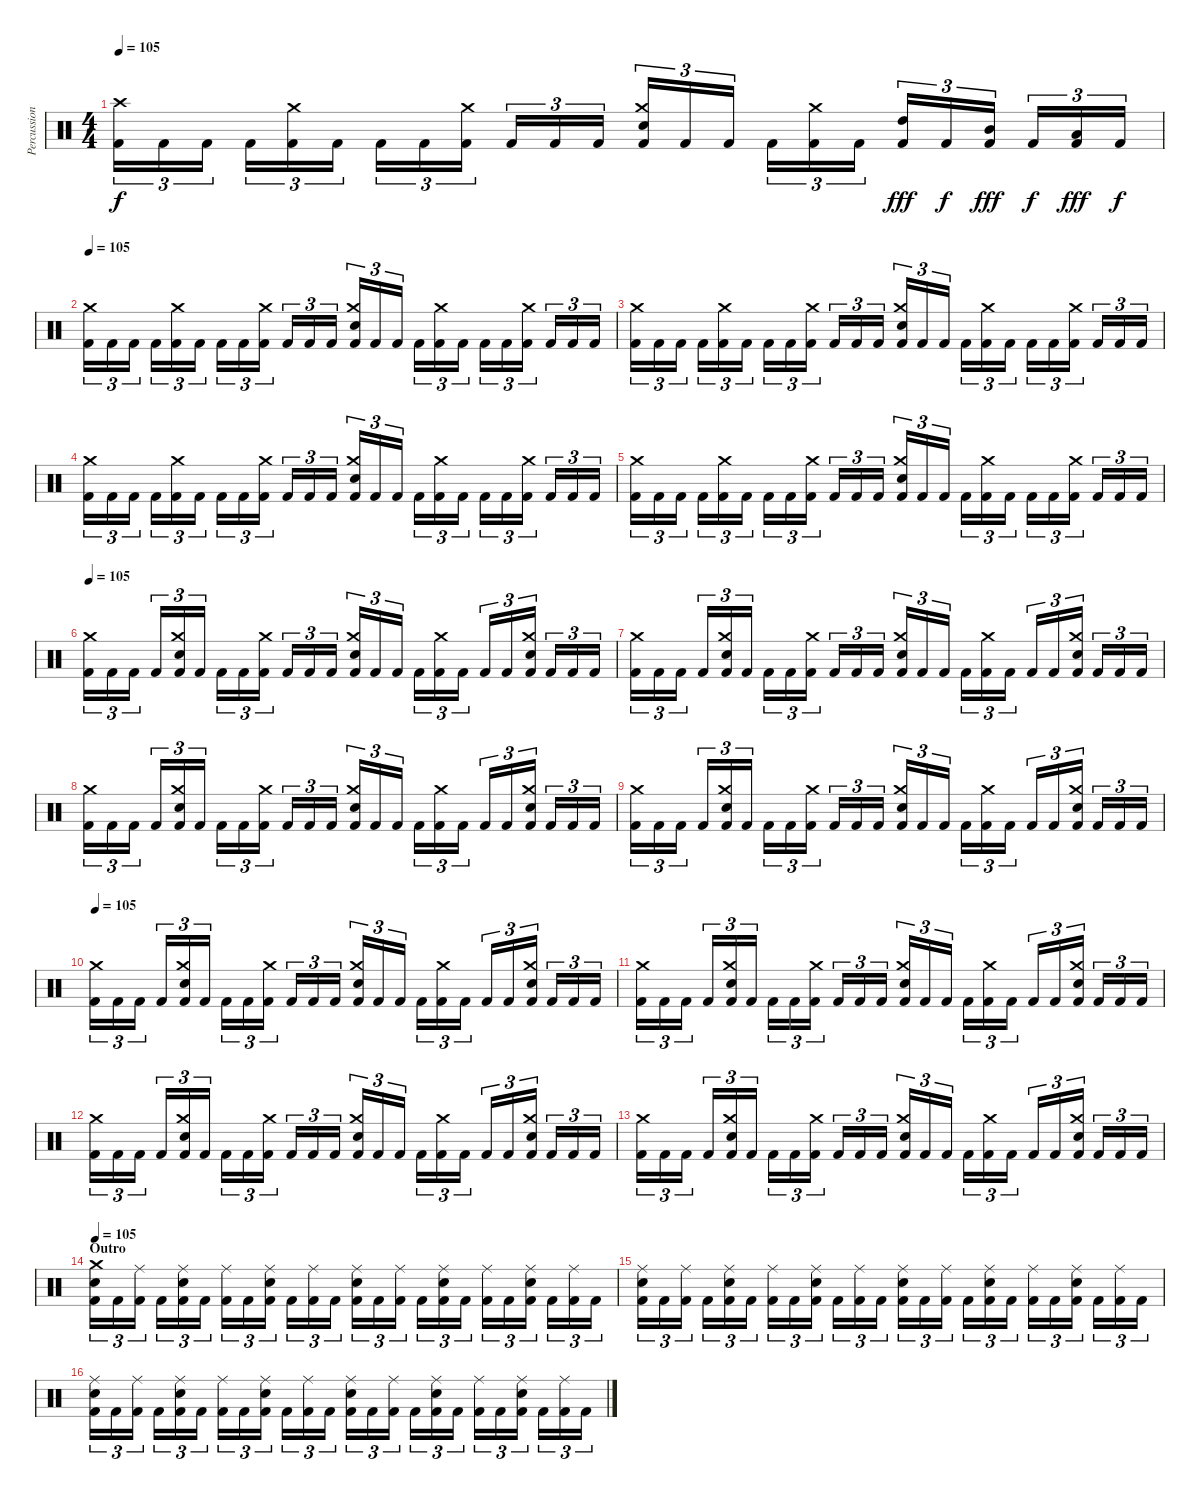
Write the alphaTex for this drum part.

\track ("Percussion" "Percussion") {instrument percussion}
\staff {score}
\articulation defaults
\ts (4 4)
\tempo 105
\clef neutral
\ks c
("Kick (hit) 2" "Crash high (hit)").16{tu (3 2) dy f} "Kick (hit) 2".16{tu (3 2)} "Kick (hit) 2".16{tu (3 2)} "Kick (hit) 2".16{tu (3 2)} ("Kick (hit) 2" "Crash medium (hit)").16{tu (3 2)} "Kick (hit) 2".16{tu (3 2)} "Kick (hit) 2".16{tu (3 2)} "Kick (hit) 2".16{tu (3 2)} ("Kick (hit) 2" "Crash medium (hit)").16{tu (3 2)} "Kick (hit) 2".16{tu (3 2)} "Kick (hit) 2".16{tu (3 2)} "Kick (hit) 2".16{tu (3 2)} ("Kick (hit) 2" "Electric Snare (hit)" "Crash medium (hit)").16{tu (3 2)} "Kick (hit) 2".16{tu (3 2)} "Kick (hit) 2".16{tu (3 2)} "Kick (hit) 2".16{tu (3 2)} ("Kick (hit) 2" "Crash medium (hit)").16{tu (3 2)} "Kick (hit) 2".16{tu (3 2)} ("Kick (hit) 2" "High Tom (hit)").16{tu (3 2) dy fff} "Kick (hit) 2".16{tu (3 2) dy f} ("Kick (hit) 2" "Mid Tom (hit)").16{tu (3 2) dy fff} "Kick (hit) 2".16{tu (3 2) dy f} ("Kick (hit) 2" "Low Tom (hit)").16{tu (3 2) dy fff} "Kick (hit) 2".16{tu (3 2) dy f} |
\tempo 105
("Kick (hit) 2" "Crash medium (hit)").16{tu (3 2)} "Kick (hit) 2".16{tu (3 2)} "Kick (hit) 2".16{tu (3 2)} "Kick (hit) 2".16{tu (3 2)} ("Kick (hit) 2" "Crash medium (hit)").16{tu (3 2)} "Kick (hit) 2".16{tu (3 2)} "Kick (hit) 2".16{tu (3 2)} "Kick (hit) 2".16{tu (3 2)} ("Kick (hit) 2" "Crash medium (hit)").16{tu (3 2)} "Kick (hit) 2".16{tu (3 2)} "Kick (hit) 2".16{tu (3 2)} "Kick (hit) 2".16{tu (3 2)} ("Kick (hit) 2" "Electric Snare (hit)" "Crash medium (hit)").16{tu (3 2)} "Kick (hit) 2".16{tu (3 2)} "Kick (hit) 2".16{tu (3 2)} "Kick (hit) 2".16{tu (3 2)} ("Kick (hit) 2" "Crash medium (hit)").16{tu (3 2)} "Kick (hit) 2".16{tu (3 2)} "Kick (hit) 2".16{tu (3 2)} "Kick (hit) 2".16{tu (3 2)} ("Kick (hit) 2" "Crash medium (hit)").16{tu (3 2)} "Kick (hit) 2".16{tu (3 2)} "Kick (hit) 2".16{tu (3 2)} "Kick (hit) 2".16{tu (3 2)} |
("Kick (hit) 2" "Crash medium (hit)").16{tu (3 2)} "Kick (hit) 2".16{tu (3 2)} "Kick (hit) 2".16{tu (3 2)} "Kick (hit) 2".16{tu (3 2)} ("Kick (hit) 2" "Crash medium (hit)").16{tu (3 2)} "Kick (hit) 2".16{tu (3 2)} "Kick (hit) 2".16{tu (3 2)} "Kick (hit) 2".16{tu (3 2)} ("Kick (hit) 2" "Crash medium (hit)").16{tu (3 2)} "Kick (hit) 2".16{tu (3 2)} "Kick (hit) 2".16{tu (3 2)} "Kick (hit) 2".16{tu (3 2)} ("Kick (hit) 2" "Electric Snare (hit)" "Crash medium (hit)").16{tu (3 2)} "Kick (hit) 2".16{tu (3 2)} "Kick (hit) 2".16{tu (3 2)} "Kick (hit) 2".16{tu (3 2)} ("Kick (hit) 2" "Crash medium (hit)").16{tu (3 2)} "Kick (hit) 2".16{tu (3 2)} "Kick (hit) 2".16{tu (3 2)} "Kick (hit) 2".16{tu (3 2)} ("Kick (hit) 2" "Crash medium (hit)").16{tu (3 2)} "Kick (hit) 2".16{tu (3 2)} "Kick (hit) 2".16{tu (3 2)} "Kick (hit) 2".16{tu (3 2)} |
("Kick (hit) 2" "Crash medium (hit)").16{tu (3 2)} "Kick (hit) 2".16{tu (3 2)} "Kick (hit) 2".16{tu (3 2)} "Kick (hit) 2".16{tu (3 2)} ("Kick (hit) 2" "Crash medium (hit)").16{tu (3 2)} "Kick (hit) 2".16{tu (3 2)} "Kick (hit) 2".16{tu (3 2)} "Kick (hit) 2".16{tu (3 2)} ("Kick (hit) 2" "Crash medium (hit)").16{tu (3 2)} "Kick (hit) 2".16{tu (3 2)} "Kick (hit) 2".16{tu (3 2)} "Kick (hit) 2".16{tu (3 2)} ("Kick (hit) 2" "Electric Snare (hit)" "Crash medium (hit)").16{tu (3 2)} "Kick (hit) 2".16{tu (3 2)} "Kick (hit) 2".16{tu (3 2)} "Kick (hit) 2".16{tu (3 2)} ("Kick (hit) 2" "Crash medium (hit)").16{tu (3 2)} "Kick (hit) 2".16{tu (3 2)} "Kick (hit) 2".16{tu (3 2)} "Kick (hit) 2".16{tu (3 2)} ("Kick (hit) 2" "Crash medium (hit)").16{tu (3 2)} "Kick (hit) 2".16{tu (3 2)} "Kick (hit) 2".16{tu (3 2)} "Kick (hit) 2".16{tu (3 2)} |
("Kick (hit) 2" "Crash medium (hit)").16{tu (3 2)} "Kick (hit) 2".16{tu (3 2)} "Kick (hit) 2".16{tu (3 2)} "Kick (hit) 2".16{tu (3 2)} ("Kick (hit) 2" "Crash medium (hit)").16{tu (3 2)} "Kick (hit) 2".16{tu (3 2)} "Kick (hit) 2".16{tu (3 2)} "Kick (hit) 2".16{tu (3 2)} ("Kick (hit) 2" "Crash medium (hit)").16{tu (3 2)} "Kick (hit) 2".16{tu (3 2)} "Kick (hit) 2".16{tu (3 2)} "Kick (hit) 2".16{tu (3 2)} ("Kick (hit) 2" "Electric Snare (hit)" "Crash medium (hit)").16{tu (3 2)} "Kick (hit) 2".16{tu (3 2)} "Kick (hit) 2".16{tu (3 2)} "Kick (hit) 2".16{tu (3 2)} ("Kick (hit) 2" "Crash medium (hit)").16{tu (3 2)} "Kick (hit) 2".16{tu (3 2)} "Kick (hit) 2".16{tu (3 2)} "Kick (hit) 2".16{tu (3 2)} ("Kick (hit) 2" "Crash medium (hit)").16{tu (3 2)} "Kick (hit) 2".16{tu (3 2)} "Kick (hit) 2".16{tu (3 2)} "Kick (hit) 2".16{tu (3 2)} |
\tempo 105
("Kick (hit) 2" "Crash medium (hit)").16{tu (3 2)} "Kick (hit) 2".16{tu (3 2)} "Kick (hit) 2".16{tu (3 2)} "Kick (hit) 2".16{tu (3 2)} ("Kick (hit) 2" "Electric Snare (hit)" "Crash medium (hit)").16{tu (3 2)} "Kick (hit) 2".16{tu (3 2)} "Kick (hit) 2".16{tu (3 2)} "Kick (hit) 2".16{tu (3 2)} ("Kick (hit) 2" "Crash medium (hit)").16{tu (3 2)} "Kick (hit) 2".16{tu (3 2)} "Kick (hit) 2".16{tu (3 2)} "Kick (hit) 2".16{tu (3 2)} ("Kick (hit) 2" "Electric Snare (hit)" "Crash medium (hit)").16{tu (3 2)} "Kick (hit) 2".16{tu (3 2)} "Kick (hit) 2".16{tu (3 2)} "Kick (hit) 2".16{tu (3 2)} ("Kick (hit) 2" "Crash medium (hit)").16{tu (3 2)} "Kick (hit) 2".16{tu (3 2)} "Kick (hit) 2".16{tu (3 2)} "Kick (hit) 2".16{tu (3 2)} ("Kick (hit) 2" "Electric Snare (hit)" "Crash medium (hit)").16{tu (3 2)} "Kick (hit) 2".16{tu (3 2)} "Kick (hit) 2".16{tu (3 2)} "Kick (hit) 2".16{tu (3 2)} |
("Kick (hit) 2" "Crash medium (hit)").16{tu (3 2)} "Kick (hit) 2".16{tu (3 2)} "Kick (hit) 2".16{tu (3 2)} "Kick (hit) 2".16{tu (3 2)} ("Kick (hit) 2" "Electric Snare (hit)" "Crash medium (hit)").16{tu (3 2)} "Kick (hit) 2".16{tu (3 2)} "Kick (hit) 2".16{tu (3 2)} "Kick (hit) 2".16{tu (3 2)} ("Kick (hit) 2" "Crash medium (hit)").16{tu (3 2)} "Kick (hit) 2".16{tu (3 2)} "Kick (hit) 2".16{tu (3 2)} "Kick (hit) 2".16{tu (3 2)} ("Kick (hit) 2" "Electric Snare (hit)" "Crash medium (hit)").16{tu (3 2)} "Kick (hit) 2".16{tu (3 2)} "Kick (hit) 2".16{tu (3 2)} "Kick (hit) 2".16{tu (3 2)} ("Kick (hit) 2" "Crash medium (hit)").16{tu (3 2)} "Kick (hit) 2".16{tu (3 2)} "Kick (hit) 2".16{tu (3 2)} "Kick (hit) 2".16{tu (3 2)} ("Kick (hit) 2" "Electric Snare (hit)" "Crash medium (hit)").16{tu (3 2)} "Kick (hit) 2".16{tu (3 2)} "Kick (hit) 2".16{tu (3 2)} "Kick (hit) 2".16{tu (3 2)} |
("Kick (hit) 2" "Crash medium (hit)").16{tu (3 2)} "Kick (hit) 2".16{tu (3 2)} "Kick (hit) 2".16{tu (3 2)} "Kick (hit) 2".16{tu (3 2)} ("Kick (hit) 2" "Electric Snare (hit)" "Crash medium (hit)").16{tu (3 2)} "Kick (hit) 2".16{tu (3 2)} "Kick (hit) 2".16{tu (3 2)} "Kick (hit) 2".16{tu (3 2)} ("Kick (hit) 2" "Crash medium (hit)").16{tu (3 2)} "Kick (hit) 2".16{tu (3 2)} "Kick (hit) 2".16{tu (3 2)} "Kick (hit) 2".16{tu (3 2)} ("Kick (hit) 2" "Electric Snare (hit)" "Crash medium (hit)").16{tu (3 2)} "Kick (hit) 2".16{tu (3 2)} "Kick (hit) 2".16{tu (3 2)} "Kick (hit) 2".16{tu (3 2)} ("Kick (hit) 2" "Crash medium (hit)").16{tu (3 2)} "Kick (hit) 2".16{tu (3 2)} "Kick (hit) 2".16{tu (3 2)} "Kick (hit) 2".16{tu (3 2)} ("Kick (hit) 2" "Electric Snare (hit)" "Crash medium (hit)").16{tu (3 2)} "Kick (hit) 2".16{tu (3 2)} "Kick (hit) 2".16{tu (3 2)} "Kick (hit) 2".16{tu (3 2)} |
("Kick (hit) 2" "Crash medium (hit)").16{tu (3 2)} "Kick (hit) 2".16{tu (3 2)} "Kick (hit) 2".16{tu (3 2)} "Kick (hit) 2".16{tu (3 2)} ("Kick (hit) 2" "Electric Snare (hit)" "Crash medium (hit)").16{tu (3 2)} "Kick (hit) 2".16{tu (3 2)} "Kick (hit) 2".16{tu (3 2)} "Kick (hit) 2".16{tu (3 2)} ("Kick (hit) 2" "Crash medium (hit)").16{tu (3 2)} "Kick (hit) 2".16{tu (3 2)} "Kick (hit) 2".16{tu (3 2)} "Kick (hit) 2".16{tu (3 2)} ("Kick (hit) 2" "Electric Snare (hit)" "Crash medium (hit)").16{tu (3 2)} "Kick (hit) 2".16{tu (3 2)} "Kick (hit) 2".16{tu (3 2)} "Kick (hit) 2".16{tu (3 2)} ("Kick (hit) 2" "Crash medium (hit)").16{tu (3 2)} "Kick (hit) 2".16{tu (3 2)} "Kick (hit) 2".16{tu (3 2)} "Kick (hit) 2".16{tu (3 2)} ("Kick (hit) 2" "Electric Snare (hit)" "Crash medium (hit)").16{tu (3 2)} "Kick (hit) 2".16{tu (3 2)} "Kick (hit) 2".16{tu (3 2)} "Kick (hit) 2".16{tu (3 2)} |
\tempo 105
("Kick (hit) 2" "Crash medium (hit)").16{tu (3 2)} "Kick (hit) 2".16{tu (3 2)} "Kick (hit) 2".16{tu (3 2)} "Kick (hit) 2".16{tu (3 2)} ("Kick (hit) 2" "Electric Snare (hit)" "Crash medium (hit)").16{tu (3 2)} "Kick (hit) 2".16{tu (3 2)} "Kick (hit) 2".16{tu (3 2)} "Kick (hit) 2".16{tu (3 2)} ("Kick (hit) 2" "Crash medium (hit)").16{tu (3 2)} "Kick (hit) 2".16{tu (3 2)} "Kick (hit) 2".16{tu (3 2)} "Kick (hit) 2".16{tu (3 2)} ("Kick (hit) 2" "Electric Snare (hit)" "Crash medium (hit)").16{tu (3 2)} "Kick (hit) 2".16{tu (3 2)} "Kick (hit) 2".16{tu (3 2)} "Kick (hit) 2".16{tu (3 2)} ("Kick (hit) 2" "Crash medium (hit)").16{tu (3 2)} "Kick (hit) 2".16{tu (3 2)} "Kick (hit) 2".16{tu (3 2)} "Kick (hit) 2".16{tu (3 2)} ("Kick (hit) 2" "Electric Snare (hit)" "Crash medium (hit)").16{tu (3 2)} "Kick (hit) 2".16{tu (3 2)} "Kick (hit) 2".16{tu (3 2)} "Kick (hit) 2".16{tu (3 2)} |
("Kick (hit) 2" "Crash medium (hit)").16{tu (3 2)} "Kick (hit) 2".16{tu (3 2)} "Kick (hit) 2".16{tu (3 2)} "Kick (hit) 2".16{tu (3 2)} ("Kick (hit) 2" "Electric Snare (hit)" "Crash medium (hit)").16{tu (3 2)} "Kick (hit) 2".16{tu (3 2)} "Kick (hit) 2".16{tu (3 2)} "Kick (hit) 2".16{tu (3 2)} ("Kick (hit) 2" "Crash medium (hit)").16{tu (3 2)} "Kick (hit) 2".16{tu (3 2)} "Kick (hit) 2".16{tu (3 2)} "Kick (hit) 2".16{tu (3 2)} ("Kick (hit) 2" "Electric Snare (hit)" "Crash medium (hit)").16{tu (3 2)} "Kick (hit) 2".16{tu (3 2)} "Kick (hit) 2".16{tu (3 2)} "Kick (hit) 2".16{tu (3 2)} ("Kick (hit) 2" "Crash medium (hit)").16{tu (3 2)} "Kick (hit) 2".16{tu (3 2)} "Kick (hit) 2".16{tu (3 2)} "Kick (hit) 2".16{tu (3 2)} ("Kick (hit) 2" "Electric Snare (hit)" "Crash medium (hit)").16{tu (3 2)} "Kick (hit) 2".16{tu (3 2)} "Kick (hit) 2".16{tu (3 2)} "Kick (hit) 2".16{tu (3 2)} |
("Kick (hit) 2" "Crash medium (hit)").16{tu (3 2)} "Kick (hit) 2".16{tu (3 2)} "Kick (hit) 2".16{tu (3 2)} "Kick (hit) 2".16{tu (3 2)} ("Kick (hit) 2" "Electric Snare (hit)" "Crash medium (hit)").16{tu (3 2)} "Kick (hit) 2".16{tu (3 2)} "Kick (hit) 2".16{tu (3 2)} "Kick (hit) 2".16{tu (3 2)} ("Kick (hit) 2" "Crash medium (hit)").16{tu (3 2)} "Kick (hit) 2".16{tu (3 2)} "Kick (hit) 2".16{tu (3 2)} "Kick (hit) 2".16{tu (3 2)} ("Kick (hit) 2" "Electric Snare (hit)" "Crash medium (hit)").16{tu (3 2)} "Kick (hit) 2".16{tu (3 2)} "Kick (hit) 2".16{tu (3 2)} "Kick (hit) 2".16{tu (3 2)} ("Kick (hit) 2" "Crash medium (hit)").16{tu (3 2)} "Kick (hit) 2".16{tu (3 2)} "Kick (hit) 2".16{tu (3 2)} "Kick (hit) 2".16{tu (3 2)} ("Kick (hit) 2" "Electric Snare (hit)" "Crash medium (hit)").16{tu (3 2)} "Kick (hit) 2".16{tu (3 2)} "Kick (hit) 2".16{tu (3 2)} "Kick (hit) 2".16{tu (3 2)} |
("Kick (hit) 2" "Crash medium (hit)").16{tu (3 2)} "Kick (hit) 2".16{tu (3 2)} "Kick (hit) 2".16{tu (3 2)} "Kick (hit) 2".16{tu (3 2)} ("Kick (hit) 2" "Electric Snare (hit)" "Crash medium (hit)").16{tu (3 2)} "Kick (hit) 2".16{tu (3 2)} "Kick (hit) 2".16{tu (3 2)} "Kick (hit) 2".16{tu (3 2)} ("Kick (hit) 2" "Crash medium (hit)").16{tu (3 2)} "Kick (hit) 2".16{tu (3 2)} "Kick (hit) 2".16{tu (3 2)} "Kick (hit) 2".16{tu (3 2)} ("Kick (hit) 2" "Electric Snare (hit)" "Crash medium (hit)").16{tu (3 2)} "Kick (hit) 2".16{tu (3 2)} "Kick (hit) 2".16{tu (3 2)} "Kick (hit) 2".16{tu (3 2)} ("Kick (hit) 2" "Crash medium (hit)").16{tu (3 2)} "Kick (hit) 2".16{tu (3 2)} "Kick (hit) 2".16{tu (3 2)} "Kick (hit) 2".16{tu (3 2)} ("Kick (hit) 2" "Electric Snare (hit)" "Crash medium (hit)").16{tu (3 2)} "Kick (hit) 2".16{tu (3 2)} "Kick (hit) 2".16{tu (3 2)} "Kick (hit) 2".16{tu (3 2)} |
\section ("" "Outro")
\tempo 105
("Kick (hit) 2" "Electric Snare (hit)" "Crash medium (hit)").16{tu (3 2) volume 14} "Kick (hit) 2".16{tu (3 2)} ("Kick (hit) 2" "Ride (middle)").16{tu (3 2)} "Kick (hit) 2".16{tu (3 2)} ("Kick (hit) 2" "Electric Snare (hit)" "Ride (middle)").16{tu (3 2)} "Kick (hit) 2".16{tu (3 2)} ("Kick (hit) 2" "Ride (middle)").16{tu (3 2)} "Kick (hit) 2".16{tu (3 2)} ("Kick (hit) 2" "Electric Snare (hit)" "Ride (middle)").16{tu (3 2)} "Kick (hit) 2".16{tu (3 2)} ("Kick (hit) 2" "Ride (middle)").16{tu (3 2)} "Kick (hit) 2".16{tu (3 2)} ("Kick (hit) 2" "Electric Snare (hit)" "Ride (middle)").16{tu (3 2)} "Kick (hit) 2".16{tu (3 2)} ("Kick (hit) 2" "Ride (middle)").16{tu (3 2)} "Kick (hit) 2".16{tu (3 2)} ("Kick (hit) 2" "Electric Snare (hit)" "Ride (middle)").16{tu (3 2)} "Kick (hit) 2".16{tu (3 2)} ("Kick (hit) 2" "Ride (middle)").16{tu (3 2)} "Kick (hit) 2".16{tu (3 2)} ("Kick (hit) 2" "Electric Snare (hit)" "Ride (middle)").16{tu (3 2)} "Kick (hit) 2".16{tu (3 2)} ("Kick (hit) 2" "Ride (middle)").16{tu (3 2)} "Kick (hit) 2".16{tu (3 2)} |
("Kick (hit) 2" "Electric Snare (hit)" "Ride (middle)").16{tu (3 2)} "Kick (hit) 2".16{tu (3 2)} ("Kick (hit) 2" "Ride (middle)").16{tu (3 2)} "Kick (hit) 2".16{tu (3 2)} ("Kick (hit) 2" "Electric Snare (hit)" "Ride (middle)").16{tu (3 2)} "Kick (hit) 2".16{tu (3 2)} ("Kick (hit) 2" "Ride (middle)").16{tu (3 2)} "Kick (hit) 2".16{tu (3 2)} ("Kick (hit) 2" "Electric Snare (hit)" "Ride (middle)").16{tu (3 2)} "Kick (hit) 2".16{tu (3 2)} ("Kick (hit) 2" "Ride (middle)").16{tu (3 2)} "Kick (hit) 2".16{tu (3 2)} ("Kick (hit) 2" "Electric Snare (hit)" "Ride (middle)").16{tu (3 2)} "Kick (hit) 2".16{tu (3 2)} ("Kick (hit) 2" "Ride (middle)").16{tu (3 2)} "Kick (hit) 2".16{tu (3 2)} ("Kick (hit) 2" "Electric Snare (hit)" "Ride (middle)").16{tu (3 2)} "Kick (hit) 2".16{tu (3 2)} ("Kick (hit) 2" "Ride (middle)").16{tu (3 2)} "Kick (hit) 2".16{tu (3 2)} ("Kick (hit) 2" "Electric Snare (hit)" "Ride (middle)").16{tu (3 2)} "Kick (hit) 2".16{tu (3 2)} ("Kick (hit) 2" "Ride (middle)").16{tu (3 2)} "Kick (hit) 2".16{tu (3 2)} |
("Kick (hit) 2" "Electric Snare (hit)" "Ride (middle)").16{tu (3 2) volume 11} "Kick (hit) 2".16{tu (3 2)} ("Kick (hit) 2" "Ride (middle)").16{tu (3 2)} "Kick (hit) 2".16{tu (3 2)} ("Kick (hit) 2" "Electric Snare (hit)" "Ride (middle)").16{tu (3 2)} "Kick (hit) 2".16{tu (3 2)} ("Kick (hit) 2" "Ride (middle)").16{tu (3 2)} "Kick (hit) 2".16{tu (3 2)} ("Kick (hit) 2" "Electric Snare (hit)" "Ride (middle)").16{tu (3 2)} "Kick (hit) 2".16{tu (3 2)} ("Kick (hit) 2" "Ride (middle)").16{tu (3 2)} "Kick (hit) 2".16{tu (3 2)} ("Kick (hit) 2" "Electric Snare (hit)" "Ride (middle)").16{tu (3 2)} "Kick (hit) 2".16{tu (3 2)} ("Kick (hit) 2" "Ride (middle)").16{tu (3 2)} "Kick (hit) 2".16{tu (3 2)} ("Kick (hit) 2" "Electric Snare (hit)" "Ride (middle)").16{tu (3 2)} "Kick (hit) 2".16{tu (3 2)} ("Kick (hit) 2" "Ride (middle)").16{tu (3 2)} "Kick (hit) 2".16{tu (3 2)} ("Kick (hit) 2" "Electric Snare (hit)" "Ride (middle)").16{tu (3 2)} "Kick (hit) 2".16{tu (3 2)} ("Kick (hit) 2" "Ride (middle)").16{tu (3 2)} "Kick (hit) 2".16{tu (3 2)}
